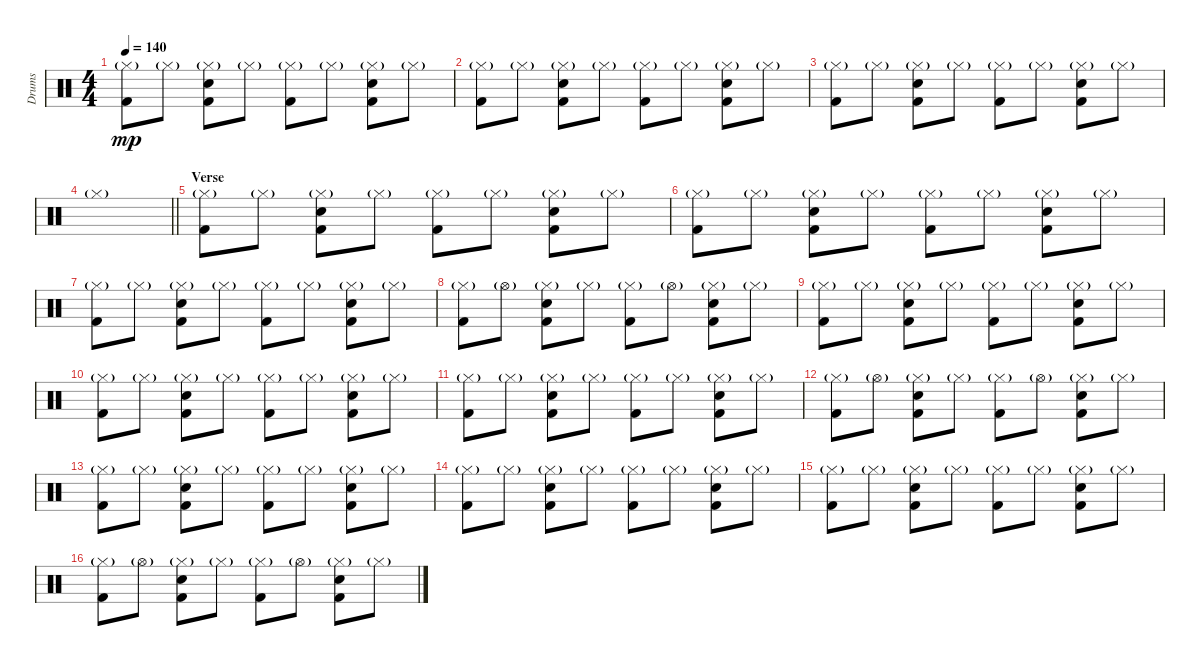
\track ("Drums" "Drums") {instrument percussion}
\staff {score}
\articulation defaults
\ts (4 4)
\tempo 140
\clef neutral
\ks c
("Hi-Hat (closed)"{g} "Kick (hit) 2").8{dy mp} "Hi-Hat (closed)"{g}.8 ("Hi-Hat (closed)"{g} "Electric Snare (hit)" "Kick (hit) 2").8 "Hi-Hat (closed)"{g}.8 ("Hi-Hat (closed)"{g} "Kick (hit) 2").8 "Hi-Hat (closed)"{g}.8 ("Hi-Hat (closed)"{g} "Electric Snare (hit)" "Kick (hit) 2").8 "Hi-Hat (closed)"{g}.8 |
("Hi-Hat (closed)"{g} "Kick (hit) 2").8 "Hi-Hat (closed)"{g}.8 ("Hi-Hat (closed)"{g} "Electric Snare (hit)" "Kick (hit) 2").8 "Hi-Hat (closed)"{g}.8 ("Hi-Hat (closed)"{g} "Kick (hit) 2").8 "Hi-Hat (closed)"{g}.8 ("Hi-Hat (closed)"{g} "Electric Snare (hit)" "Kick (hit) 2").8 "Hi-Hat (closed)"{g}.8 |
("Hi-Hat (closed)"{g} "Kick (hit) 2").8 "Hi-Hat (closed)"{g}.8 ("Hi-Hat (closed)"{g} "Electric Snare (hit)" "Kick (hit) 2").8 "Hi-Hat (closed)"{g}.8 ("Hi-Hat (closed)"{g} "Kick (hit) 2").8 "Hi-Hat (closed)"{g}.8 ("Hi-Hat (closed)"{g} "Electric Snare (hit)" "Kick (hit) 2").8 "Hi-Hat (closed)"{g}.8 |
\barLineRight lightlight "Hi-Hat (closed)"{g}.1
|
\section ("" "Verse")
("Hi-Hat (closed)"{g} "Kick (hit) 2").8 "Hi-Hat (closed)"{g}.8 ("Hi-Hat (closed)"{g} "Electric Snare (hit)" "Kick (hit) 2").8 "Hi-Hat (closed)"{g}.8 ("Hi-Hat (closed)"{g} "Kick (hit) 2").8 "Hi-Hat (closed)"{g}.8 ("Hi-Hat (closed)"{g} "Electric Snare (hit)" "Kick (hit) 2").8 "Hi-Hat (closed)"{g}.8 |
("Hi-Hat (closed)"{g} "Kick (hit) 2").8 "Hi-Hat (closed)"{g}.8 ("Hi-Hat (closed)"{g} "Electric Snare (hit)" "Kick (hit) 2").8 "Hi-Hat (closed)"{g}.8 ("Hi-Hat (closed)"{g} "Kick (hit) 2").8 "Hi-Hat (closed)"{g}.8 ("Hi-Hat (closed)"{g} "Electric Snare (hit)" "Kick (hit) 2").8 "Hi-Hat (closed)"{g}.8 |
("Hi-Hat (closed)"{g} "Kick (hit) 2").8 "Hi-Hat (closed)"{g}.8 ("Hi-Hat (closed)"{g} "Electric Snare (hit)" "Kick (hit) 2").8 "Hi-Hat (closed)"{g}.8 ("Hi-Hat (closed)"{g} "Kick (hit) 2").8 "Hi-Hat (closed)"{g}.8 ("Hi-Hat (closed)"{g} "Electric Snare (hit)" "Kick (hit) 2").8 "Hi-Hat (closed)"{g}.8 |
("Hi-Hat (closed)"{g} "Kick (hit) 2").8 "Hi-Hat (open)"{g}.8 ("Hi-Hat (closed)"{g} "Electric Snare (hit)" "Kick (hit) 2").8 "Hi-Hat (closed)"{g}.8 ("Hi-Hat (closed)"{g} "Kick (hit) 2").8 "Hi-Hat (open)"{g}.8 ("Hi-Hat (closed)"{g} "Electric Snare (hit)" "Kick (hit) 2").8 "Hi-Hat (closed)"{g}.8 |
("Hi-Hat (closed)"{g} "Kick (hit) 2").8 "Hi-Hat (closed)"{g}.8 ("Hi-Hat (closed)"{g} "Electric Snare (hit)" "Kick (hit) 2").8 "Hi-Hat (closed)"{g}.8 ("Hi-Hat (closed)"{g} "Kick (hit) 2").8 "Hi-Hat (closed)"{g}.8 ("Hi-Hat (closed)"{g} "Electric Snare (hit)" "Kick (hit) 2").8 "Hi-Hat (closed)"{g}.8 |
("Hi-Hat (closed)"{g} "Kick (hit) 2").8 "Hi-Hat (closed)"{g}.8 ("Hi-Hat (closed)"{g} "Electric Snare (hit)" "Kick (hit) 2").8 "Hi-Hat (closed)"{g}.8 ("Hi-Hat (closed)"{g} "Kick (hit) 2").8 "Hi-Hat (closed)"{g}.8 ("Hi-Hat (closed)"{g} "Electric Snare (hit)" "Kick (hit) 2").8 "Hi-Hat (closed)"{g}.8 |
("Hi-Hat (closed)"{g} "Kick (hit) 2").8 "Hi-Hat (closed)"{g}.8 ("Hi-Hat (closed)"{g} "Electric Snare (hit)" "Kick (hit) 2").8 "Hi-Hat (closed)"{g}.8 ("Hi-Hat (closed)"{g} "Kick (hit) 2").8 "Hi-Hat (closed)"{g}.8 ("Hi-Hat (closed)"{g} "Electric Snare (hit)" "Kick (hit) 2").8 "Hi-Hat (closed)"{g}.8 |
("Hi-Hat (closed)"{g} "Kick (hit) 2").8 "Hi-Hat (open)"{g}.8 ("Hi-Hat (closed)"{g} "Electric Snare (hit)" "Kick (hit) 2").8 "Hi-Hat (closed)"{g}.8 ("Hi-Hat (closed)"{g} "Kick (hit) 2").8 "Hi-Hat (open)"{g}.8 ("Hi-Hat (closed)"{g} "Electric Snare (hit)" "Kick (hit) 2").8 "Hi-Hat (closed)"{g}.8 |
("Hi-Hat (closed)"{g} "Kick (hit) 2").8 "Hi-Hat (closed)"{g}.8 ("Hi-Hat (closed)"{g} "Electric Snare (hit)" "Kick (hit) 2").8 "Hi-Hat (closed)"{g}.8 ("Hi-Hat (closed)"{g} "Kick (hit) 2").8 "Hi-Hat (closed)"{g}.8 ("Hi-Hat (closed)"{g} "Electric Snare (hit)" "Kick (hit) 2").8 "Hi-Hat (closed)"{g}.8 |
("Hi-Hat (closed)"{g} "Kick (hit) 2").8 "Hi-Hat (closed)"{g}.8 ("Hi-Hat (closed)"{g} "Electric Snare (hit)" "Kick (hit) 2").8 "Hi-Hat (closed)"{g}.8 ("Hi-Hat (closed)"{g} "Kick (hit) 2").8 "Hi-Hat (closed)"{g}.8 ("Hi-Hat (closed)"{g} "Electric Snare (hit)" "Kick (hit) 2").8 "Hi-Hat (closed)"{g}.8 |
("Hi-Hat (closed)"{g} "Kick (hit) 2").8 "Hi-Hat (closed)"{g}.8 ("Hi-Hat (closed)"{g} "Electric Snare (hit)" "Kick (hit) 2").8 "Hi-Hat (closed)"{g}.8 ("Hi-Hat (closed)"{g} "Kick (hit) 2").8 "Hi-Hat (closed)"{g}.8 ("Hi-Hat (closed)"{g} "Electric Snare (hit)" "Kick (hit) 2").8 "Hi-Hat (closed)"{g}.8 |
("Hi-Hat (closed)"{g} "Kick (hit) 2").8 "Hi-Hat (open)"{g}.8 ("Hi-Hat (closed)"{g} "Electric Snare (hit)" "Kick (hit) 2").8 "Hi-Hat (closed)"{g}.8 ("Hi-Hat (closed)"{g} "Kick (hit) 2").8 "Hi-Hat (open)"{g}.8 ("Hi-Hat (closed)"{g} "Electric Snare (hit)" "Kick (hit) 2").8 "Hi-Hat (closed)"{g}.8
